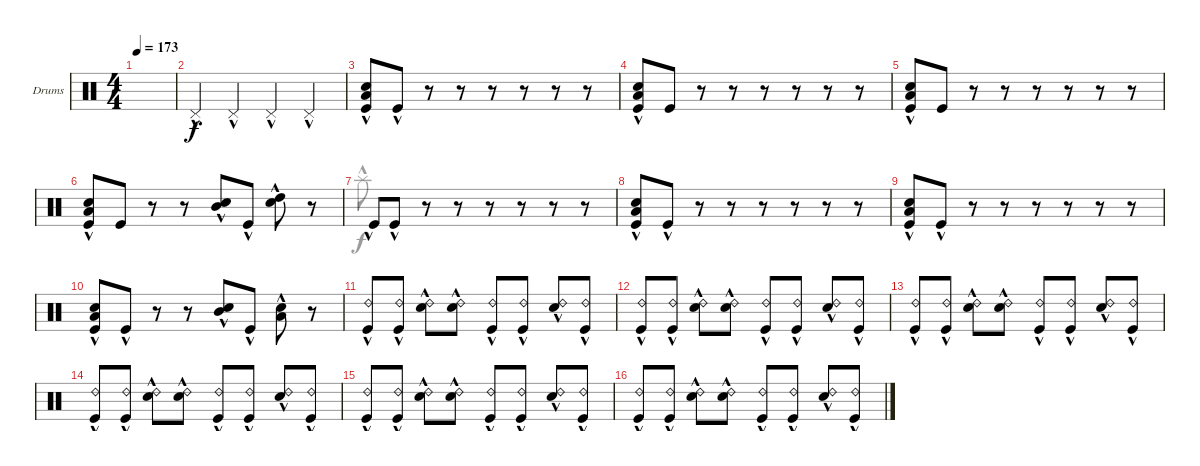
\defaultSystemsLayout 4
\bracketExtendMode groupsimilarinstruments
\firstSystemTrackNameOrientation horizontal
\otherSystemsTrackNameOrientation horizontal
\track ("Drumkit" "Drums") {instrument percussion}
\staff {score}
\articulation defaults
\voice
\ts (4 4)
\tempo 173
\clef neutral
\ks c
|
"Pedal Hi-Hat (hit)"{hac}.4 "Pedal Hi-Hat (hit)"{hac}.4 "Pedal Hi-Hat (hit)"{hac}.4 "Pedal Hi-Hat (hit)"{hac}.4 |
("Kick (hit)"{hac} "Snare (hit) 2"{hac} "Low Tom (hit)"{hac}).8 "Kick (hit)"{hac}.8 r.8 r.8 r.8 r.8 r.8 r.8 |
("Kick (hit)"{hac} "Snare (hit) 2"{hac} "Low Tom (hit)"{hac}).8 "Kick (hit)".8 r.8 r.8 r.8 r.8 r.8 r.8 |
("Kick (hit)"{hac} "Snare (hit) 2"{hac} "Low Tom (hit)"{hac}).8 "Kick (hit)".8 r.8 r.8 r.8 r.8 r.8 r.8 |
("Kick (hit)"{hac} "Snare (hit) 2"{hac} "Low Tom (hit)"{hac}).8 "Kick (hit)".8 r.8 r.8 ("Snare (hit) 2"{hac} "Mid Tom (hit)"{hac}).8 "Kick (hit)"{hac}.8 ("Snare (hit) 2"{hac} "High Tom (hit)").8 r.8 |
"Kick (hit)"{hac}.8 "Kick (hit)"{hac}.8 r.8 r.8 r.8 r.8 r.8 r.8 |
("Kick (hit)"{hac} "Snare (hit) 2"{hac} "Low Tom (hit)"{hac}).8 "Kick (hit)"{hac}.8 r.8 r.8 r.8 r.8 r.8 r.8 |
("Kick (hit)"{hac} "Snare (hit) 2"{hac} "Low Tom (hit)"{hac}).8 "Kick (hit)"{hac}.8 r.8 r.8 r.8 r.8 r.8 r.8 |
("Kick (hit)"{hac} "Snare (hit) 2"{hac} "Low Tom (hit)"{hac}).8 "Kick (hit)"{hac}.8 r.8 r.8 ("Snare (hit) 2"{hac} "Mid Tom (hit)"{hac}).8 "Kick (hit)"{hac}.8 ("Snare (hit) 2"{hac} "Low Tom (hit)"{hac}).8 r.8 |
("Kick (hit)"{hac} "Ride (bell) 2"{hac}).8 ("Ride (bell) 2"{hac} "Kick (hit)"{hac}).8 ("Ride (bell) 2"{hac} "Snare (hit) 2"{hac}).8 ("Ride (bell) 2"{hac} "Snare (hit) 2"{hac}).8 ("Ride (bell) 2"{hac} "Kick (hit)"{hac}).8 ("Ride (bell) 2"{hac} "Kick (hit)"{hac}).8 ("Ride (bell) 2"{hac} "Snare (hit) 2"{hac}).8 ("Ride (bell) 2"{hac} "Kick (hit)"{hac}).8 |
("Kick (hit)"{hac} "Ride (bell) 2"{hac}).8 ("Ride (bell) 2"{hac} "Kick (hit)"{hac}).8 ("Ride (bell) 2"{hac} "Snare (hit) 2"{hac}).8 ("Ride (bell) 2"{hac} "Snare (hit) 2"{hac}).8 ("Ride (bell) 2"{hac} "Kick (hit)"{hac}).8 ("Ride (bell) 2"{hac} "Kick (hit)"{hac}).8 ("Ride (bell) 2"{hac} "Snare (hit) 2"{hac}).8 ("Ride (bell) 2"{hac} "Kick (hit)"{hac}).8 |
("Kick (hit)"{hac} "Ride (bell) 2"{hac}).8 ("Ride (bell) 2"{hac} "Kick (hit)"{hac}).8 ("Ride (bell) 2"{hac} "Snare (hit) 2"{hac}).8 ("Ride (bell) 2"{hac} "Snare (hit) 2"{hac}).8 ("Ride (bell) 2"{hac} "Kick (hit)"{hac}).8 ("Ride (bell) 2"{hac} "Kick (hit)"{hac}).8 ("Ride (bell) 2"{hac} "Snare (hit) 2"{hac}).8 ("Ride (bell) 2"{hac} "Kick (hit)"{hac}).8 |
("Kick (hit)"{hac} "Ride (bell) 2"{hac}).8 ("Ride (bell) 2"{hac} "Kick (hit)"{hac}).8 ("Ride (bell) 2"{hac} "Snare (hit) 2"{hac}).8 ("Ride (bell) 2"{hac} "Snare (hit) 2"{hac}).8 ("Ride (bell) 2"{hac} "Kick (hit)"{hac}).8 ("Ride (bell) 2"{hac} "Kick (hit)"{hac}).8 ("Ride (bell) 2"{hac} "Snare (hit) 2"{hac}).8 ("Ride (bell) 2"{hac} "Kick (hit)"{hac}).8 |
("Kick (hit)"{hac} "Ride (bell) 2"{hac}).8 ("Ride (bell) 2"{hac} "Kick (hit)"{hac}).8 ("Ride (bell) 2"{hac} "Snare (hit) 2"{hac}).8 ("Ride (bell) 2"{hac} "Snare (hit) 2"{hac}).8 ("Ride (bell) 2"{hac} "Kick (hit)"{hac}).8 ("Ride (bell) 2"{hac} "Kick (hit)"{hac}).8 ("Ride (bell) 2"{hac} "Snare (hit) 2"{hac}).8 ("Ride (bell) 2"{hac} "Kick (hit)"{hac}).8 |
("Kick (hit)"{hac} "Ride (bell) 2"{hac}).8 ("Ride (bell) 2"{hac} "Kick (hit)"{hac}).8 ("Ride (bell) 2"{hac} "Snare (hit) 2"{hac}).8 ("Ride (bell) 2"{hac} "Snare (hit) 2"{hac}).8 ("Ride (bell) 2"{hac} "Kick (hit)"{hac}).8 ("Ride (bell) 2"{hac} "Kick (hit)"{hac}).8 ("Ride (bell) 2"{hac} "Snare (hit) 2"{hac}).8 ("Ride (bell) 2"{hac} "Kick (hit)"{hac}).8
\voice
\clef neutral
\ottava regular
\simile none
\ks c
|
|
|
|
|
|
"Splash (hit)"{hac}.8 |
|
|
|
|
|
|
|
|
